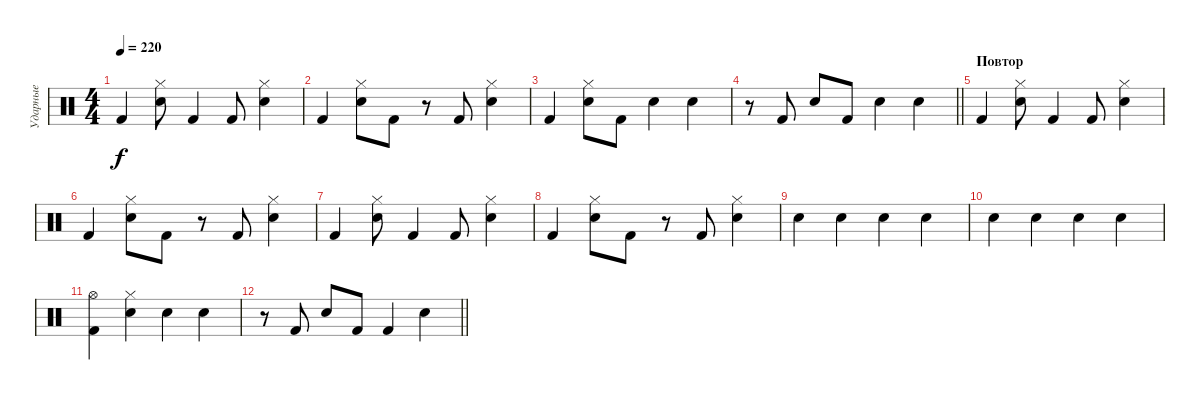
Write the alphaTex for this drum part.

\track ("Ударные" "Ударные") {instrument percussion}
\staff {score}
\articulation defaults
\ts (4 4)
\tempo 220
\clef neutral
\ks c "Kick (hit) 2".4{dy f}
("Hi-Hat (closed)" "Snare (hit) 2").8 "Kick (hit) 2".4 "Kick (hit) 2".8 ("Hi-Hat (closed)" "Snare (hit) 2").4 |
"Kick (hit) 2".4 ("Hi-Hat (closed)" "Snare (hit) 2").8 "Kick (hit) 2".8 r.8 "Kick (hit) 2".8 ("Hi-Hat (closed)" "Snare (hit) 2").4 |
"Kick (hit) 2".4 ("Hi-Hat (closed)" "Snare (hit) 2").8 "Kick (hit) 2".8 "Snare (hit) 2".4 "Snare (hit) 2".4 |
\barLineRight lightlight
r.8 "Kick (hit) 2".8 "Snare (hit) 2".8 "Kick (hit) 2".8 "Snare (hit) 2".4 "Snare (hit) 2".4 |
\section ("" "Повтор")
"Kick (hit) 2".4 ("Hi-Hat (closed)" "Snare (hit) 2").8 "Kick (hit) 2".4 "Kick (hit) 2".8 ("Hi-Hat (closed)" "Snare (hit) 2").4 |
"Kick (hit) 2".4 ("Hi-Hat (closed)" "Snare (hit) 2").8 "Kick (hit) 2".8 r.8 "Kick (hit) 2".8 ("Hi-Hat (closed)" "Snare (hit) 2").4 |
"Kick (hit) 2".4 ("Hi-Hat (closed)" "Snare (hit) 2").8 "Kick (hit) 2".4 "Kick (hit) 2".8 ("Hi-Hat (closed)" "Snare (hit) 2").4 |
"Kick (hit) 2".4 ("Hi-Hat (closed)" "Snare (hit) 2").8 "Kick (hit) 2".8 r.8 "Kick (hit) 2".8 ("Hi-Hat (closed)" "Snare (hit) 2").4 |
"Snare (hit) 2".4 "Snare (hit) 2".4 "Snare (hit) 2".4 "Snare (hit) 2".4 |
"Snare (hit) 2".4 "Snare (hit) 2".4 "Snare (hit) 2".4 "Snare (hit) 2".4 |
("Hi-Hat (open)" "Kick (hit) 2").4 ("Hi-Hat (closed)" "Snare (hit) 2").4 "Snare (hit) 2".4 "Snare (hit) 2".4 |
\barLineRight lightlight
r.8 "Kick (hit) 2".8 "Snare (hit) 2".8 "Kick (hit) 2".8 "Kick (hit) 2".4 "Snare (hit) 2".4
